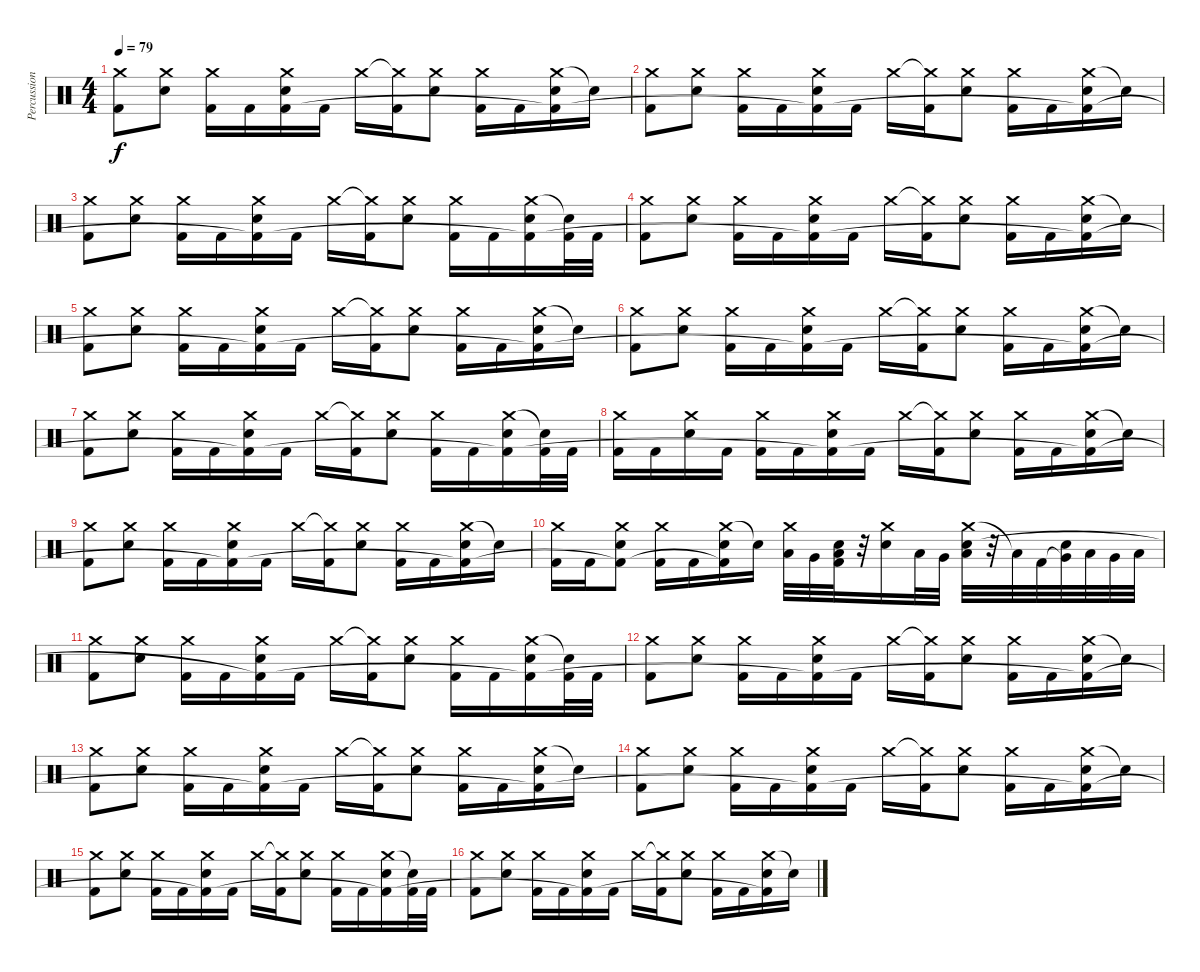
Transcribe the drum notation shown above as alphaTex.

\track ("Percussion" "Percussion") {instrument percussion}
\staff {score}
\articulation defaults
\ts (4 4)
\tempo 79
\clef neutral
\ks c
("Crash medium (hit)" "Kick (hit) 2").8{dy f} ("Crash medium (hit)" "Snare (hit) 2").8 ("Crash medium (hit)" "Kick (hit) 2").16 "Kick (hit) 2".16 ("Crash medium (hit)" "Snare (hit) 2" "Kick (hit) 2"{t}).16 "Kick (hit) 2".16 "Crash medium (hit)".16 ("Crash medium (hit)"{t} "Kick (hit) 2").16 ("Crash medium (hit)" "Snare (hit) 2").8 ("Crash medium (hit)" "Kick (hit) 2").16 "Kick (hit) 2".16 ("Crash medium (hit)" "Snare (hit) 2" "Kick (hit) 2"{t}).16 "Snare (hit)"{t}.16 |
("Crash medium (hit)" "Kick (hit) 2").8 ("Crash medium (hit)" "Snare (hit) 2").8 ("Crash medium (hit)" "Kick (hit) 2").16 "Kick (hit) 2".16 ("Crash medium (hit)" "Snare (hit) 2" "Kick (hit) 2"{t}).16 "Kick (hit) 2".16 "Crash medium (hit)".16 ("Crash medium (hit)"{t} "Kick (hit) 2").16 ("Crash medium (hit)" "Snare (hit) 2").8 ("Crash medium (hit)" "Kick (hit) 2").16 "Kick (hit) 2".16 ("Crash medium (hit)" "Snare (hit) 2" "Kick (hit) 2"{t}).16 "Snare (hit)"{t}.16 |
("Crash medium (hit)" "Kick (hit) 2").8 ("Crash medium (hit)" "Snare (hit) 2").8 ("Crash medium (hit)" "Kick (hit) 2").16 "Kick (hit) 2".16 ("Crash medium (hit)" "Snare (hit) 2" "Kick (hit) 2"{t}).16 "Kick (hit) 2".16 "Crash medium (hit)".16 ("Crash medium (hit)"{t} "Kick (hit) 2").16 ("Crash medium (hit)" "Snare (hit) 2").8 ("Crash medium (hit)" "Kick (hit) 2").16 "Kick (hit) 2".16 ("Crash medium (hit)" "Snare (hit) 2" "Kick (hit) 2"{t}).16 ("Snare (hit)"{t} "Kick (hit) 2").32 "Kick (hit) 2".32 |
("Crash medium (hit)" "Kick (hit) 2").8 ("Crash medium (hit)" "Snare (hit) 2").8 ("Crash medium (hit)" "Kick (hit) 2").16 "Kick (hit) 2".16 ("Crash medium (hit)" "Snare (hit) 2" "Kick (hit) 2"{t}).16 "Kick (hit) 2".16 "Crash medium (hit)".16 ("Crash medium (hit)"{t} "Kick (hit) 2").16 ("Crash medium (hit)" "Snare (hit) 2").8 ("Crash medium (hit)" "Kick (hit) 2").16 "Kick (hit) 2".16 ("Crash medium (hit)" "Snare (hit) 2" "Kick (hit) 2"{t}).16 "Snare (hit)"{t}.16 |
("Crash medium (hit)" "Kick (hit) 2").8 ("Crash medium (hit)" "Snare (hit) 2").8 ("Crash medium (hit)" "Kick (hit) 2").16 "Kick (hit) 2".16 ("Crash medium (hit)" "Snare (hit) 2" "Kick (hit) 2"{t}).16 "Kick (hit) 2".16 "Crash medium (hit)".16 ("Crash medium (hit)"{t} "Kick (hit) 2").16 ("Crash medium (hit)" "Snare (hit) 2").8 ("Crash medium (hit)" "Kick (hit) 2").16 "Kick (hit) 2".16 ("Crash medium (hit)" "Snare (hit) 2" "Kick (hit) 2"{t}).16 "Snare (hit)"{t}.16 |
("Crash medium (hit)" "Kick (hit) 2").8 ("Crash medium (hit)" "Snare (hit) 2").8 ("Crash medium (hit)" "Kick (hit) 2").16 "Kick (hit) 2".16 ("Crash medium (hit)" "Snare (hit) 2" "Kick (hit) 2"{t}).16 "Kick (hit) 2".16 "Crash medium (hit)".16 ("Crash medium (hit)"{t} "Kick (hit) 2").16 ("Crash medium (hit)" "Snare (hit) 2").8 ("Crash medium (hit)" "Kick (hit) 2").16 "Kick (hit) 2".16 ("Crash medium (hit)" "Snare (hit) 2" "Kick (hit) 2"{t}).16 "Snare (hit)"{t}.16 |
("Crash medium (hit)" "Kick (hit) 2").8 ("Crash medium (hit)" "Snare (hit) 2").8 ("Crash medium (hit)" "Kick (hit) 2").16 "Kick (hit) 2".16 ("Crash medium (hit)" "Snare (hit) 2" "Kick (hit) 2"{t}).16 "Kick (hit) 2".16 "Crash medium (hit)".16 ("Crash medium (hit)"{t} "Kick (hit) 2").16 ("Crash medium (hit)" "Snare (hit) 2").8 ("Crash medium (hit)" "Kick (hit) 2").16 "Kick (hit) 2".16 ("Crash medium (hit)" "Snare (hit) 2" "Kick (hit) 2"{t}).16 ("Snare (hit)"{t} "Kick (hit) 2").32 "Kick (hit) 2".32 |
("Crash medium (hit)" "Kick (hit) 2").16 "Kick (hit) 2".16 ("Crash medium (hit)" "Snare (hit) 2").16 "Kick (hit) 2".16 ("Crash medium (hit)" "Kick (hit) 2").16 "Kick (hit) 2".16 ("Crash medium (hit)" "Snare (hit) 2" "Kick (hit) 2"{t}).16 "Kick (hit) 2".16 "Crash medium (hit)".16 ("Crash medium (hit)"{t} "Kick (hit) 2").16 ("Crash medium (hit)" "Snare (hit) 2").8 ("Crash medium (hit)" "Kick (hit) 2").16 "Kick (hit) 2".16 ("Crash medium (hit)" "Snare (hit) 2" "Kick (hit) 2"{t}).16 "Snare (hit)"{t}.16 |
("Crash medium (hit)" "Kick (hit) 2").8 ("Crash medium (hit)" "Snare (hit) 2").8 ("Crash medium (hit)" "Kick (hit) 2").16 "Kick (hit) 2".16 ("Crash medium (hit)" "Snare (hit) 2" "Kick (hit) 2"{t}).16 "Kick (hit) 2".16 "Crash medium (hit)".16 ("Crash medium (hit)"{t} "Kick (hit) 2").16 ("Crash medium (hit)" "Snare (hit) 2").8 ("Crash medium (hit)" "Kick (hit) 2").16 "Kick (hit) 2".16 ("Crash medium (hit)" "Snare (hit) 2" "Kick (hit) 2"{t}).16 "Snare (hit)"{t}.16 |
("Crash medium (hit)" "Kick (hit) 2").16 "Kick (hit) 2".16 ("Crash medium (hit)" "Snare (hit) 2" "Kick (hit) 2"{t}).8 ("Crash medium (hit)" "Kick (hit) 2").16 "Kick (hit) 2".16 ("Crash medium (hit)" "Snare (hit) 2" "Kick (hit) 2"{t}).16 "Snare (hit)"{t}.16 ("Crash medium (hit)" "Low Tom (hit)").32 "Very Low Tom (hit)".32 ("Low Floor Tom (hit)" "Snare (hit) 2" "Kick (hit) 2").32 r.32 ("Crash medium (hit)" "Snare (hit) 2").16 "Low Tom (hit)".32 "Very Low Tom (hit)".32 ("Crash medium (hit)" "Low Tom (hit)" "Snare (hit) 2").32 r.32 "Low Floor Tom (hit)"{t}.32 "Kick (hit) 2".32 ("Very Low Tom (hit)"{t} "Snare (hit) 2").32 "Low Tom (hit)".32 "Very Low Tom (hit)".32 "Low Floor Tom (hit)".32 |
("Crash medium (hit)" "Kick (hit) 2").8 ("Crash medium (hit)" "Snare (hit) 2").8 ("Crash medium (hit)" "Kick (hit) 2").16 "Kick (hit) 2".16 ("Crash medium (hit)" "Snare (hit) 2" "Kick (hit) 2"{t}).16 "Kick (hit) 2".16 "Crash medium (hit)".16 ("Crash medium (hit)"{t} "Kick (hit) 2").16 ("Crash medium (hit)" "Snare (hit) 2").8 ("Crash medium (hit)" "Kick (hit) 2").16 "Kick (hit) 2".16 ("Crash medium (hit)" "Snare (hit) 2" "Kick (hit) 2"{t}).16 ("Snare (hit)"{t} "Kick (hit) 2").32 "Kick (hit) 2".32 |
("Crash medium (hit)" "Kick (hit) 2").8 ("Crash medium (hit)" "Snare (hit) 2").8 ("Crash medium (hit)" "Kick (hit) 2").16 "Kick (hit) 2".16 ("Crash medium (hit)" "Snare (hit) 2" "Kick (hit) 2"{t}).16 "Kick (hit) 2".16 "Crash medium (hit)".16 ("Crash medium (hit)"{t} "Kick (hit) 2").16 ("Crash medium (hit)" "Snare (hit) 2").8 ("Crash medium (hit)" "Kick (hit) 2").16 "Kick (hit) 2".16 ("Crash medium (hit)" "Snare (hit) 2" "Kick (hit) 2"{t}).16 "Snare (hit)"{t}.16 |
("Crash medium (hit)" "Kick (hit) 2").8 ("Crash medium (hit)" "Snare (hit) 2").8 ("Crash medium (hit)" "Kick (hit) 2").16 "Kick (hit) 2".16 ("Crash medium (hit)" "Snare (hit) 2" "Kick (hit) 2"{t}).16 "Kick (hit) 2".16 "Crash medium (hit)".16 ("Crash medium (hit)"{t} "Kick (hit) 2").16 ("Crash medium (hit)" "Snare (hit) 2").8 ("Crash medium (hit)" "Kick (hit) 2").16 "Kick (hit) 2".16 ("Crash medium (hit)" "Snare (hit) 2" "Kick (hit) 2"{t}).16 "Snare (hit)"{t}.16 |
("Crash medium (hit)" "Kick (hit) 2").8 ("Crash medium (hit)" "Snare (hit) 2").8 ("Crash medium (hit)" "Kick (hit) 2").16 "Kick (hit) 2".16 ("Crash medium (hit)" "Snare (hit) 2" "Kick (hit) 2"{t}).16 "Kick (hit) 2".16 "Crash medium (hit)".16 ("Crash medium (hit)"{t} "Kick (hit) 2").16 ("Crash medium (hit)" "Snare (hit) 2").8 ("Crash medium (hit)" "Kick (hit) 2").16 "Kick (hit) 2".16 ("Crash medium (hit)" "Snare (hit) 2" "Kick (hit) 2"{t}).16 "Snare (hit)"{t}.16 |
("Crash medium (hit)" "Kick (hit) 2").8 ("Crash medium (hit)" "Snare (hit) 2").8 ("Crash medium (hit)" "Kick (hit) 2").16 "Kick (hit) 2".16 ("Crash medium (hit)" "Snare (hit) 2" "Kick (hit) 2"{t}).16 "Kick (hit) 2".16 "Crash medium (hit)".16 ("Crash medium (hit)"{t} "Kick (hit) 2").16 ("Crash medium (hit)" "Snare (hit) 2").8 ("Crash medium (hit)" "Kick (hit) 2").16 "Kick (hit) 2".16 ("Crash medium (hit)" "Snare (hit) 2" "Kick (hit) 2"{t}).16 ("Snare (hit)"{t} "Kick (hit) 2").32 "Kick (hit) 2".32 |
("Crash medium (hit)" "Kick (hit) 2").8 ("Crash medium (hit)" "Snare (hit) 2").8 ("Crash medium (hit)" "Kick (hit) 2").16 "Kick (hit) 2".16 ("Crash medium (hit)" "Snare (hit) 2" "Kick (hit) 2"{t}).16 "Kick (hit) 2".16 "Crash medium (hit)".16 ("Crash medium (hit)"{t} "Kick (hit) 2").16 ("Crash medium (hit)" "Snare (hit) 2").8 ("Crash medium (hit)" "Kick (hit) 2").16 "Kick (hit) 2".16 ("Crash medium (hit)" "Snare (hit) 2" "Kick (hit) 2"{t}).16 "Snare (hit)"{t}.16
